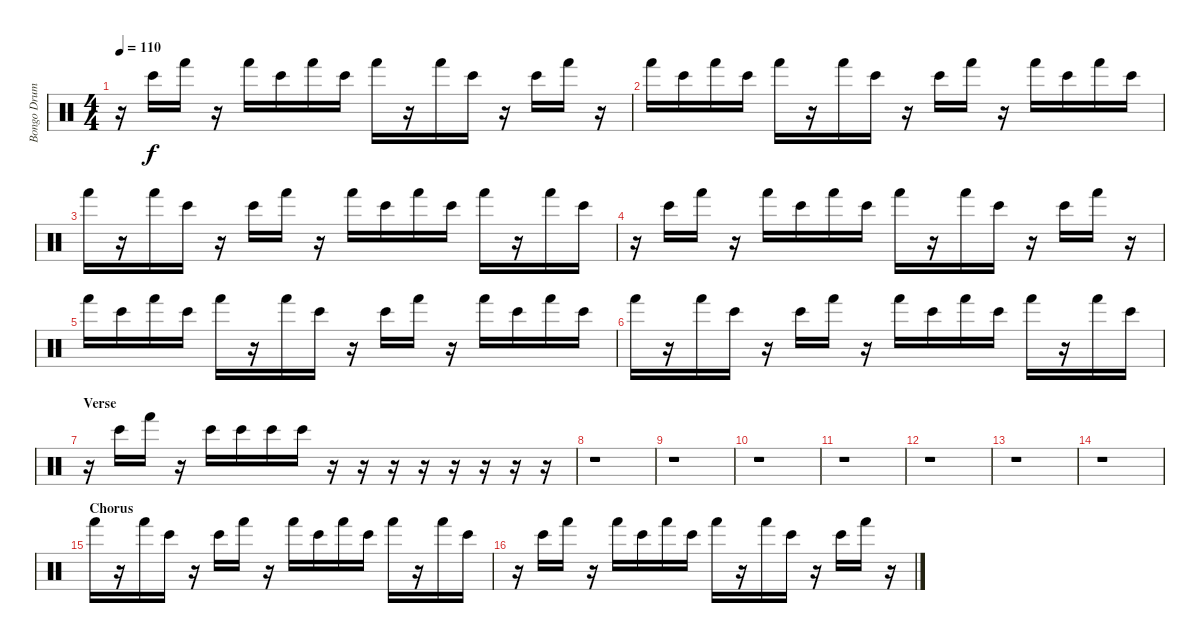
\track ("Bongo Drums" "Bongo Drum") {instrument percussion}
\staff {score}
\articulation defaults
\ts (4 4)
\tempo 110
\clef neutral
\ks c
r.16{dy f} "Bongo High (hit)".16 "Hand (hit)".16 r.16 "Hand (hit)".16 "Bongo High (hit)".16 "Hand (hit)".16 "Bongo High (hit)".16 "Hand (hit)".16 r.16 "Hand (hit)".16 "Bongo High (hit)".16 r.16 "Bongo High (hit)".16 "Hand (hit)".16 r.16 |
"Hand (hit)".16 "Bongo High (hit)".16 "Hand (hit)".16 "Bongo High (hit)".16 "Hand (hit)".16 r.16 "Hand (hit)".16 "Bongo High (hit)".16 r.16 "Bongo High (hit)".16 "Hand (hit)".16 r.16 "Hand (hit)".16 "Bongo High (hit)".16 "Hand (hit)".16 "Bongo High (hit)".16 |
"Hand (hit)".16 r.16 "Hand (hit)".16 "Bongo High (hit)".16 r.16 "Bongo High (hit)".16 "Hand (hit)".16 r.16 "Hand (hit)".16 "Bongo High (hit)".16 "Hand (hit)".16 "Bongo High (hit)".16 "Hand (hit)".16 r.16 "Hand (hit)".16 "Bongo High (hit)".16 |
r.16 "Bongo High (hit)".16 "Hand (hit)".16 r.16 "Hand (hit)".16 "Bongo High (hit)".16 "Hand (hit)".16 "Bongo High (hit)".16 "Hand (hit)".16 r.16 "Hand (hit)".16 "Bongo High (hit)".16 r.16 "Bongo High (hit)".16 "Hand (hit)".16 r.16 |
"Hand (hit)".16 "Bongo High (hit)".16 "Hand (hit)".16 "Bongo High (hit)".16 "Hand (hit)".16 r.16 "Hand (hit)".16 "Bongo High (hit)".16 r.16 "Bongo High (hit)".16 "Hand (hit)".16 r.16 "Hand (hit)".16 "Bongo High (hit)".16 "Hand (hit)".16 "Bongo High (hit)".16 |
"Hand (hit)".16 r.16 "Hand (hit)".16 "Bongo High (hit)".16 r.16 "Bongo High (hit)".16 "Hand (hit)".16 r.16 "Hand (hit)".16 "Bongo High (hit)".16 "Hand (hit)".16 "Bongo High (hit)".16 "Hand (hit)".16 r.16 "Hand (hit)".16 "Bongo High (hit)".16 |
\section ("" "Verse")
r.16 "Bongo High (hit)".16 "Hand (hit)".16 r.16 "Bongo High (hit)".16 "Bongo High (hit)".16 "Bongo High (hit)".16 "Bongo High (hit)".16 r.16 r.16 r.16 r.16 r.16 r.16 r.16 r.16 |
r.1 |
r.1 |
r.1 |
r.1 |
r.1 |
r.1 |
r.1 |
\section ("" "Chorus")
"Hand (hit)".16 r.16 "Hand (hit)".16 "Bongo High (hit)".16 r.16 "Bongo High (hit)".16 "Hand (hit)".16 r.16 "Hand (hit)".16 "Bongo High (hit)".16 "Hand (hit)".16 "Bongo High (hit)".16 "Hand (hit)".16 r.16 "Hand (hit)".16 "Bongo High (hit)".16 |
r.16 "Bongo High (hit)".16 "Hand (hit)".16 r.16 "Hand (hit)".16 "Bongo High (hit)".16 "Hand (hit)".16 "Bongo High (hit)".16 "Hand (hit)".16 r.16 "Hand (hit)".16 "Bongo High (hit)".16 r.16 "Bongo High (hit)".16 "Hand (hit)".16 r.16
